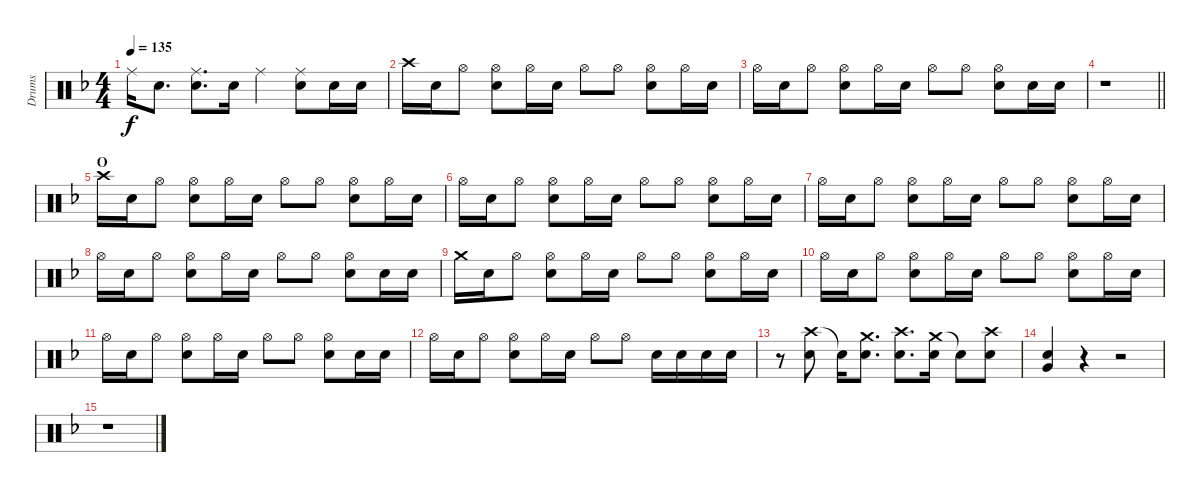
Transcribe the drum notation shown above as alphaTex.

\track ("Drums" "Drums") {instrument percussion}
\staff {score}
\articulation defaults
\ts (4 4)
\tempo 135
\clef neutral
\ks f "Ride (middle)".16{dy f} "Snare (hit) 2".8{d}
("Ride (middle)" "Snare (hit) 2").8{d} "Snare (hit) 2".16 "Ride (middle)".4 ("Ride (middle)" "Snare (hit) 2").8 "Snare (hit) 2".16 "Snare (hit) 2".16 |
"Crash high (hit)".16 "Snare (hit) 2".16 "Hi-Hat (open)".8 ("Hi-Hat (open)" "Snare (hit) 2").8 "Hi-Hat (open)".16 "Snare (hit) 2".16 "Hi-Hat (open)".8 "Hi-Hat (open)".8 ("Hi-Hat (open)" "Snare (hit) 2").8 "Hi-Hat (open)".16 "Snare (hit) 2".16 |
"Hi-Hat (open)".16 "Snare (hit) 2".16 "Hi-Hat (open)".8 ("Hi-Hat (open)" "Snare (hit) 2").8 "Hi-Hat (open)".16 "Snare (hit) 2".16 "Hi-Hat (open)".8 "Hi-Hat (open)".8 ("Hi-Hat (open)" "Snare (hit) 2").8 "Snare (hit) 2".16 "Snare (hit) 2".16 |
\barLineRight lightlight
r.1 |
\section ("" "O")
"Crash high (hit)".16 "Snare (hit) 2".16 "Hi-Hat (open)".8 ("Hi-Hat (open)" "Snare (hit) 2").8 "Hi-Hat (open)".16 "Snare (hit) 2".16 "Hi-Hat (open)".8 "Hi-Hat (open)".8 ("Hi-Hat (open)" "Snare (hit) 2").8 "Hi-Hat (open)".16 "Snare (hit) 2".16 |
"Hi-Hat (open)".16 "Snare (hit) 2".16 "Hi-Hat (open)".8 ("Hi-Hat (open)" "Snare (hit) 2").8 "Hi-Hat (open)".16 "Snare (hit) 2".16 "Hi-Hat (open)".8 "Hi-Hat (open)".8 ("Hi-Hat (open)" "Snare (hit) 2").8 "Hi-Hat (open)".16 "Snare (hit) 2".16 |
"Hi-Hat (open)".16 "Snare (hit) 2".16 "Hi-Hat (open)".8 ("Hi-Hat (open)" "Snare (hit) 2").8 "Hi-Hat (open)".16 "Snare (hit) 2".16 "Hi-Hat (open)".8 "Hi-Hat (open)".8 ("Hi-Hat (open)" "Snare (hit) 2").8 "Hi-Hat (open)".16 "Snare (hit) 2".16 |
"Hi-Hat (open)".16 "Snare (hit) 2".16 "Hi-Hat (open)".8 ("Hi-Hat (open)" "Snare (hit) 2").8 "Hi-Hat (open)".16 "Snare (hit) 2".16 "Hi-Hat (open)".8 "Hi-Hat (open)".8 ("Hi-Hat (open)" "Snare (hit) 2").8 "Snare (hit) 2".16 "Snare (hit) 2".16 |
"Crash medium (hit)".16 "Snare (hit) 2".16 "Hi-Hat (open)".8 ("Hi-Hat (open)" "Snare (hit) 2").8 "Hi-Hat (open)".16 "Snare (hit) 2".16 "Hi-Hat (open)".8 "Hi-Hat (open)".8 ("Hi-Hat (open)" "Snare (hit) 2").8 "Hi-Hat (open)".16 "Snare (hit) 2".16 |
"Hi-Hat (open)".16 "Snare (hit) 2".16 "Hi-Hat (open)".8 ("Hi-Hat (open)" "Snare (hit) 2").8 "Hi-Hat (open)".16 "Snare (hit) 2".16 "Hi-Hat (open)".8 "Hi-Hat (open)".8 ("Hi-Hat (open)" "Snare (hit) 2").8 "Hi-Hat (open)".16 "Snare (hit) 2".16 |
"Hi-Hat (open)".16 "Snare (hit) 2".16 "Hi-Hat (open)".8 ("Hi-Hat (open)" "Snare (hit) 2").8 "Hi-Hat (open)".16 "Snare (hit) 2".16 "Hi-Hat (open)".8 "Hi-Hat (open)".8 ("Hi-Hat (open)" "Snare (hit) 2").8 "Snare (hit) 2".16 "Snare (hit) 2".16 |
"Hi-Hat (open)".16 "Snare (hit) 2".16 "Hi-Hat (open)".8 ("Hi-Hat (open)" "Snare (hit) 2").8 "Hi-Hat (open)".16 "Snare (hit) 2".16 "Hi-Hat (open)".8 "Hi-Hat (open)".8 "Snare (hit) 2".16 "Snare (hit) 2".16 "Snare (hit) 2".16 "Snare (hit) 2".16 |
r.8 ("Crash high (hit)" "Snare (hit) 2").8 "Snare (hit)"{t}.16 ("Crash medium (hit)" "Snare (hit) 2").8{d} ("Crash high (hit)" "Snare (hit) 2").8{d} ("Crash medium (hit)" "Snare (hit) 2").16 "Snare (hit)"{t}.8 ("Crash high (hit)" "Snare (hit) 2").8 |
("Snare (hit) 2" "Very Low Tom (hit)").4 r.4 r.2 |
r.1
